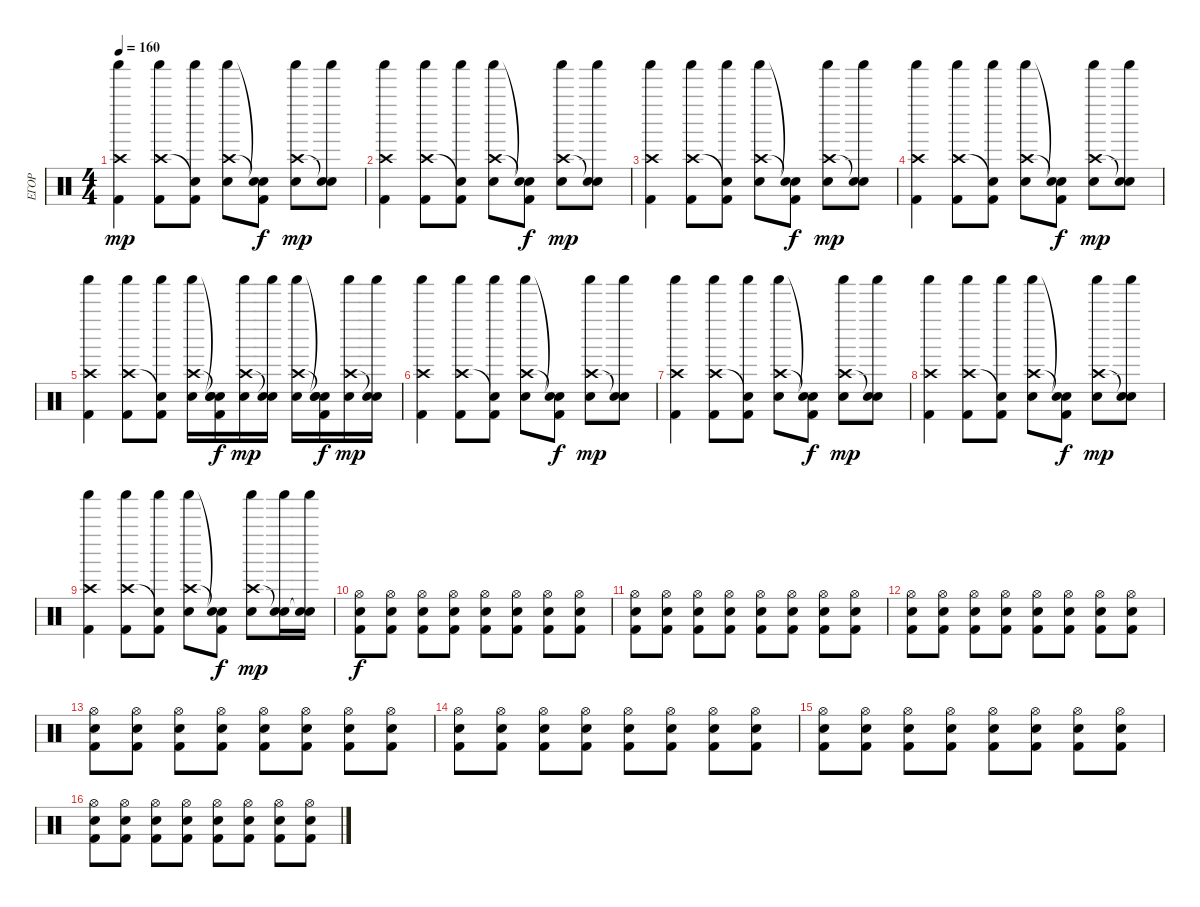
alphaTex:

\track ("ЕГОР" "ЕГОР") {instrument percussion}
\staff {score}
\articulation defaults
\ts (4 4)
\tempo 160
\clef neutral
\ks c
("Crash high (hit)" "Shaker (hit)" "Kick (hit) 2").4{dy mp} ("Crash high (hit)" "Shaker (hit)" "Kick (hit) 2").8 ("Snare (hit)"{t} "Shaker (hit)" "Kick (hit) 2").8 ("Crash high (hit)" "Shaker (hit)" "Electric Snare (hit)").8 ("Snare (hit)"{t} "Snare (hit)"{t} "Kick (hit) 2").8{dy f} ("Crash high (hit)" "Shaker (hit)" "Electric Snare (hit)").8{dy mp} ("Snare (hit)"{t} "Shaker (hit)" "Electric Snare (hit)").8 |
("Crash high (hit)" "Shaker (hit)" "Kick (hit) 2").4 ("Crash high (hit)" "Shaker (hit)" "Kick (hit) 2").8 ("Snare (hit)"{t} "Shaker (hit)" "Kick (hit) 2").8 ("Crash high (hit)" "Shaker (hit)" "Electric Snare (hit)").8 ("Snare (hit)"{t} "Snare (hit)"{t} "Kick (hit) 2").8{dy f} ("Crash high (hit)" "Shaker (hit)" "Electric Snare (hit)").8{dy mp} ("Snare (hit)"{t} "Shaker (hit)" "Electric Snare (hit)").8 |
("Crash high (hit)" "Shaker (hit)" "Kick (hit) 2").4 ("Crash high (hit)" "Shaker (hit)" "Kick (hit) 2").8 ("Snare (hit)"{t} "Shaker (hit)" "Kick (hit) 2").8 ("Crash high (hit)" "Shaker (hit)" "Electric Snare (hit)").8 ("Snare (hit)"{t} "Snare (hit)"{t} "Kick (hit) 2").8{dy f} ("Crash high (hit)" "Shaker (hit)" "Electric Snare (hit)").8{dy mp} ("Snare (hit)"{t} "Shaker (hit)" "Electric Snare (hit)").8 |
("Crash high (hit)" "Shaker (hit)" "Kick (hit) 2").4 ("Crash high (hit)" "Shaker (hit)" "Kick (hit) 2").8 ("Snare (hit)"{t} "Shaker (hit)" "Kick (hit) 2").8 ("Crash high (hit)" "Shaker (hit)" "Electric Snare (hit)").8 ("Snare (hit)"{t} "Snare (hit)"{t} "Kick (hit) 2").8{dy f} ("Crash high (hit)" "Shaker (hit)" "Electric Snare (hit)").8{dy mp} ("Snare (hit)"{t} "Shaker (hit)" "Electric Snare (hit)").8 |
("Crash high (hit)" "Shaker (hit)" "Kick (hit) 2").4 ("Crash high (hit)" "Shaker (hit)" "Kick (hit) 2").8 ("Snare (hit)"{t} "Shaker (hit)" "Kick (hit) 2").8 ("Crash high (hit)" "Shaker (hit)" "Electric Snare (hit)").16 ("Snare (hit)"{t} "Snare (hit)"{t} "Electric Snare (hit)" "Kick (hit) 2").16{dy f} ("Crash high (hit)" "Shaker (hit)" "Electric Snare (hit)").16{dy mp} ("Snare (hit)"{t} "Shaker (hit)" "Electric Snare (hit)").16 ("Crash high (hit)" "Shaker (hit)" "Electric Snare (hit)").16 ("Snare (hit)"{t} "Snare (hit)"{t} "Electric Snare (hit)" "Kick (hit) 2").16{dy f} ("Crash high (hit)" "Shaker (hit)" "Electric Snare (hit)").16{dy mp} ("Snare (hit)"{t} "Shaker (hit)" "Electric Snare (hit)").16 |
("Crash high (hit)" "Shaker (hit)" "Kick (hit) 2").4 ("Crash high (hit)" "Shaker (hit)" "Kick (hit) 2").8 ("Snare (hit)"{t} "Shaker (hit)" "Kick (hit) 2").8 ("Crash high (hit)" "Shaker (hit)" "Electric Snare (hit)").8 ("Snare (hit)"{t} "Snare (hit)"{t} "Kick (hit) 2").8{dy f} ("Crash high (hit)" "Shaker (hit)" "Electric Snare (hit)").8{dy mp} ("Snare (hit)"{t} "Shaker (hit)" "Electric Snare (hit)").8 |
("Crash high (hit)" "Shaker (hit)" "Kick (hit) 2").4 ("Crash high (hit)" "Shaker (hit)" "Kick (hit) 2").8 ("Snare (hit)"{t} "Shaker (hit)" "Kick (hit) 2").8 ("Crash high (hit)" "Shaker (hit)" "Electric Snare (hit)").8 ("Snare (hit)"{t} "Snare (hit)"{t} "Kick (hit) 2").8{dy f} ("Crash high (hit)" "Shaker (hit)" "Electric Snare (hit)").8{dy mp} ("Snare (hit)"{t} "Shaker (hit)" "Electric Snare (hit)").8 |
("Crash high (hit)" "Shaker (hit)" "Kick (hit) 2").4 ("Crash high (hit)" "Shaker (hit)" "Kick (hit) 2").8 ("Snare (hit)"{t} "Shaker (hit)" "Kick (hit) 2").8 ("Crash high (hit)" "Shaker (hit)" "Electric Snare (hit)").8 ("Snare (hit)"{t} "Snare (hit)"{t} "Kick (hit) 2").8{dy f} ("Crash high (hit)" "Shaker (hit)" "Electric Snare (hit)").8{dy mp} ("Snare (hit)"{t} "Shaker (hit)" "Electric Snare (hit)").8 |
("Crash high (hit)" "Shaker (hit)" "Kick (hit) 2").4 ("Crash high (hit)" "Shaker (hit)" "Kick (hit) 2").8 ("Snare (hit)"{t} "Shaker (hit)" "Kick (hit) 2").8 ("Crash high (hit)" "Shaker (hit)" "Electric Snare (hit)").8 ("Snare (hit)"{t} "Snare (hit)"{t} "Kick (hit) 2").8{dy f} ("Crash high (hit)" "Shaker (hit)" "Electric Snare (hit)").8{dy mp} ("Snare (hit)"{t} "Shaker (hit)" "Electric Snare (hit)").16 ("Snare (hit)"{t} "Shaker (hit)" "Electric Snare (hit)").16 |
("Hi-Hat (open)" "Electric Snare (hit)" "Kick (hit) 2").8{dy f} ("Hi-Hat (open)" "Electric Snare (hit)" "Kick (hit) 2").8 ("Hi-Hat (open)" "Electric Snare (hit)" "Kick (hit) 2").8 ("Hi-Hat (open)" "Electric Snare (hit)" "Kick (hit) 2").8 ("Hi-Hat (open)" "Electric Snare (hit)" "Kick (hit) 2").8 ("Hi-Hat (open)" "Electric Snare (hit)" "Kick (hit) 2").8 ("Hi-Hat (open)" "Electric Snare (hit)" "Kick (hit) 2").8 ("Hi-Hat (open)" "Electric Snare (hit)" "Kick (hit) 2").8 |
("Hi-Hat (open)" "Electric Snare (hit)" "Kick (hit) 2").8 ("Hi-Hat (open)" "Electric Snare (hit)" "Kick (hit) 2").8 ("Hi-Hat (open)" "Electric Snare (hit)" "Kick (hit) 2").8 ("Hi-Hat (open)" "Electric Snare (hit)" "Kick (hit) 2").8 ("Hi-Hat (open)" "Electric Snare (hit)" "Kick (hit) 2").8 ("Hi-Hat (open)" "Electric Snare (hit)" "Kick (hit) 2").8 ("Hi-Hat (open)" "Electric Snare (hit)" "Kick (hit) 2").8 ("Hi-Hat (open)" "Electric Snare (hit)" "Kick (hit) 2").8 |
("Hi-Hat (open)" "Electric Snare (hit)" "Kick (hit) 2").8 ("Hi-Hat (open)" "Electric Snare (hit)" "Kick (hit) 2").8 ("Hi-Hat (open)" "Electric Snare (hit)" "Kick (hit) 2").8 ("Hi-Hat (open)" "Electric Snare (hit)" "Kick (hit) 2").8 ("Hi-Hat (open)" "Electric Snare (hit)" "Kick (hit) 2").8 ("Hi-Hat (open)" "Electric Snare (hit)" "Kick (hit) 2").8 ("Hi-Hat (open)" "Electric Snare (hit)" "Kick (hit) 2").8 ("Hi-Hat (open)" "Electric Snare (hit)" "Kick (hit) 2").8 |
("Hi-Hat (open)" "Electric Snare (hit)" "Kick (hit) 2").8 ("Hi-Hat (open)" "Electric Snare (hit)" "Kick (hit) 2").8 ("Hi-Hat (open)" "Electric Snare (hit)" "Kick (hit) 2").8 ("Hi-Hat (open)" "Electric Snare (hit)" "Kick (hit) 2").8 ("Hi-Hat (open)" "Electric Snare (hit)" "Kick (hit) 2").8 ("Hi-Hat (open)" "Electric Snare (hit)" "Kick (hit) 2").8 ("Hi-Hat (open)" "Electric Snare (hit)" "Kick (hit) 2").8 ("Hi-Hat (open)" "Electric Snare (hit)" "Kick (hit) 2").8 |
("Hi-Hat (open)" "Electric Snare (hit)" "Kick (hit) 2").8 ("Hi-Hat (open)" "Electric Snare (hit)" "Kick (hit) 2").8 ("Hi-Hat (open)" "Electric Snare (hit)" "Kick (hit) 2").8 ("Hi-Hat (open)" "Electric Snare (hit)" "Kick (hit) 2").8 ("Hi-Hat (open)" "Electric Snare (hit)" "Kick (hit) 2").8 ("Hi-Hat (open)" "Electric Snare (hit)" "Kick (hit) 2").8 ("Hi-Hat (open)" "Electric Snare (hit)" "Kick (hit) 2").8 ("Hi-Hat (open)" "Electric Snare (hit)" "Kick (hit) 2").8 |
("Hi-Hat (open)" "Electric Snare (hit)" "Kick (hit) 2").8 ("Hi-Hat (open)" "Electric Snare (hit)" "Kick (hit) 2").8 ("Hi-Hat (open)" "Electric Snare (hit)" "Kick (hit) 2").8 ("Hi-Hat (open)" "Electric Snare (hit)" "Kick (hit) 2").8 ("Hi-Hat (open)" "Electric Snare (hit)" "Kick (hit) 2").8 ("Hi-Hat (open)" "Electric Snare (hit)" "Kick (hit) 2").8 ("Hi-Hat (open)" "Electric Snare (hit)" "Kick (hit) 2").8 ("Hi-Hat (open)" "Electric Snare (hit)" "Kick (hit) 2").8 |
("Hi-Hat (open)" "Electric Snare (hit)" "Kick (hit) 2").8 ("Hi-Hat (open)" "Electric Snare (hit)" "Kick (hit) 2").8 ("Hi-Hat (open)" "Electric Snare (hit)" "Kick (hit) 2").8 ("Hi-Hat (open)" "Electric Snare (hit)" "Kick (hit) 2").8 ("Hi-Hat (open)" "Electric Snare (hit)" "Kick (hit) 2").8 ("Hi-Hat (open)" "Electric Snare (hit)" "Kick (hit) 2").8 ("Hi-Hat (open)" "Electric Snare (hit)" "Kick (hit) 2").8 ("Hi-Hat (open)" "Electric Snare (hit)" "Kick (hit) 2").8
